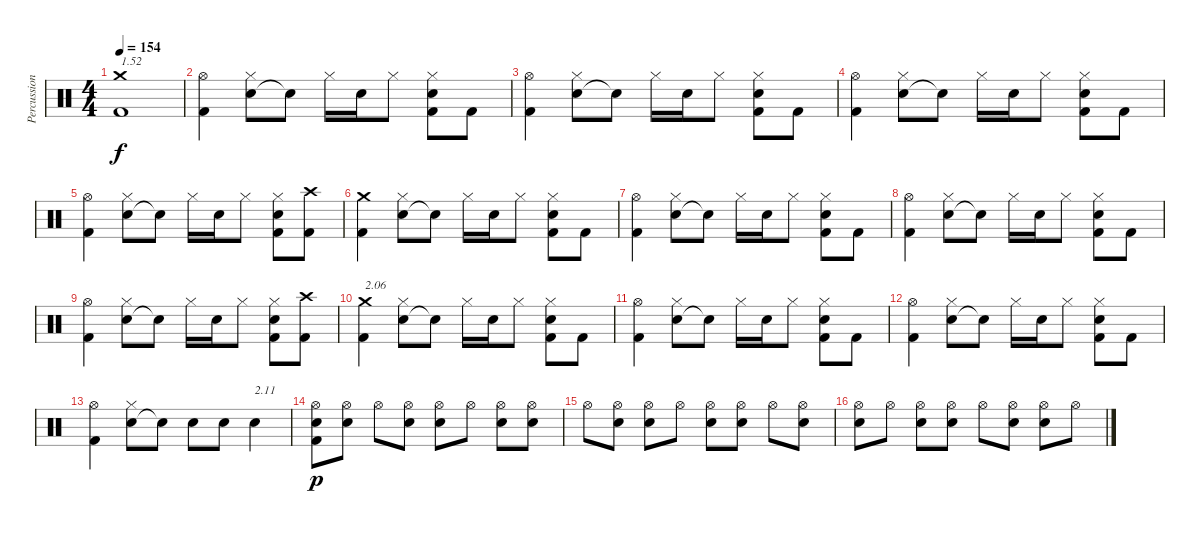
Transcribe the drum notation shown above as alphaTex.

\track ("Percussions" "Percussion") {instrument percussion}
\staff {score}
\articulation defaults
\ts (4 4)
\tempo 154
\clef neutral
\ks c
("Kick (hit) 2" "Crash medium (hit)").1{txt "1.52" dy f} |
("Kick (hit) 2" "Hi-Hat (open)").4 ("Electric Snare (hit)" "Hi-Hat (closed)").8 "Snare (hit)"{t}.8 "Hi-Hat (closed)".16 "Electric Snare (hit)".16 "Hi-Hat (closed)".8 ("Kick (hit) 2" "Electric Snare (hit)" "Hi-Hat (closed)").8 "Kick (hit) 2".8 |
("Kick (hit) 2" "Hi-Hat (open)").4 ("Electric Snare (hit)" "Hi-Hat (closed)").8 "Snare (hit)"{t}.8 "Hi-Hat (closed)".16 "Electric Snare (hit)".16 "Hi-Hat (closed)".8 ("Kick (hit) 2" "Electric Snare (hit)" "Hi-Hat (closed)").8 "Kick (hit) 2".8 |
("Kick (hit) 2" "Hi-Hat (open)").4 ("Electric Snare (hit)" "Hi-Hat (closed)").8 "Snare (hit)"{t}.8 "Hi-Hat (closed)".16 "Electric Snare (hit)".16 "Hi-Hat (closed)".8 ("Kick (hit) 2" "Electric Snare (hit)" "Hi-Hat (closed)").8 "Kick (hit) 2".8 |
("Kick (hit) 2" "Hi-Hat (open)").4 ("Electric Snare (hit)" "Hi-Hat (closed)").8 "Snare (hit)"{t}.8 "Hi-Hat (closed)".16 "Electric Snare (hit)".16 "Hi-Hat (closed)".8 ("Kick (hit) 2" "Electric Snare (hit)" "Hi-Hat (closed)").8 ("Kick (hit) 2" "Crash high (hit)").8 |
("Kick (hit) 2" "Crash medium (hit)").4 ("Electric Snare (hit)" "Hi-Hat (closed)").8 "Snare (hit)"{t}.8 "Hi-Hat (closed)".16 "Electric Snare (hit)".16 "Hi-Hat (closed)".8 ("Kick (hit) 2" "Electric Snare (hit)" "Hi-Hat (closed)").8 "Kick (hit) 2".8 |
("Kick (hit) 2" "Hi-Hat (open)").4 ("Electric Snare (hit)" "Hi-Hat (closed)").8 "Snare (hit)"{t}.8 "Hi-Hat (closed)".16 "Electric Snare (hit)".16 "Hi-Hat (closed)".8 ("Kick (hit) 2" "Electric Snare (hit)" "Hi-Hat (closed)").8 "Kick (hit) 2".8 |
("Kick (hit) 2" "Hi-Hat (open)").4 ("Electric Snare (hit)" "Hi-Hat (closed)").8 "Snare (hit)"{t}.8 "Hi-Hat (closed)".16 "Electric Snare (hit)".16 "Hi-Hat (closed)".8 ("Kick (hit) 2" "Electric Snare (hit)" "Hi-Hat (closed)").8 "Kick (hit) 2".8 |
("Kick (hit) 2" "Hi-Hat (open)").4 ("Electric Snare (hit)" "Hi-Hat (closed)").8 "Snare (hit)"{t}.8 "Hi-Hat (closed)".16 "Electric Snare (hit)".16 "Hi-Hat (closed)".8 ("Kick (hit) 2" "Electric Snare (hit)" "Hi-Hat (closed)").8 ("Kick (hit) 2" "Crash high (hit)").8 |
("Kick (hit) 2" "Crash medium (hit)").4{txt "2.06"} ("Electric Snare (hit)" "Hi-Hat (closed)").8 "Snare (hit)"{t}.8 "Hi-Hat (closed)".16 "Electric Snare (hit)".16 "Hi-Hat (closed)".8 ("Kick (hit) 2" "Electric Snare (hit)" "Hi-Hat (closed)").8 "Kick (hit) 2".8 |
("Kick (hit) 2" "Hi-Hat (open)").4 ("Electric Snare (hit)" "Hi-Hat (closed)").8 "Snare (hit)"{t}.8 "Hi-Hat (closed)".16 "Electric Snare (hit)".16 "Hi-Hat (closed)".8 ("Kick (hit) 2" "Electric Snare (hit)" "Hi-Hat (closed)").8 "Kick (hit) 2".8 |
("Kick (hit) 2" "Hi-Hat (open)").4 ("Electric Snare (hit)" "Hi-Hat (closed)").8 "Snare (hit)"{t}.8 "Hi-Hat (closed)".16 "Electric Snare (hit)".16 "Hi-Hat (closed)".8 ("Kick (hit) 2" "Electric Snare (hit)" "Hi-Hat (closed)").8 "Kick (hit) 2".8 |
("Kick (hit) 2" "Hi-Hat (open)").4 ("Electric Snare (hit)" "Hi-Hat (closed)").8 "Snare (hit)"{t}.8 "Electric Snare (hit)".8 "Electric Snare (hit)".8 "Electric Snare (hit)".4{txt "2.11"} |
("Kick (hit) 2" "Electric Snare (hit)" "Hi-Hat (open)").8{dy p} ("Electric Snare (hit)" "Hi-Hat (open)").8 "Hi-Hat (open)".8 ("Electric Snare (hit)" "Hi-Hat (open)").8 ("Electric Snare (hit)" "Hi-Hat (open)").8 "Hi-Hat (open)".8 ("Electric Snare (hit)" "Hi-Hat (open)").8 ("Electric Snare (hit)" "Hi-Hat (open)").8 |
"Hi-Hat (open)".8 ("Electric Snare (hit)" "Hi-Hat (open)").8 ("Electric Snare (hit)" "Hi-Hat (open)").8 "Hi-Hat (open)".8 ("Electric Snare (hit)" "Hi-Hat (open)").8 ("Electric Snare (hit)" "Hi-Hat (open)").8 "Hi-Hat (open)".8 ("Electric Snare (hit)" "Hi-Hat (open)").8 |
("Electric Snare (hit)" "Hi-Hat (open)").8 "Hi-Hat (open)".8 ("Electric Snare (hit)" "Hi-Hat (open)").8 ("Electric Snare (hit)" "Hi-Hat (open)").8 "Hi-Hat (open)".8 ("Electric Snare (hit)" "Hi-Hat (open)").8 ("Electric Snare (hit)" "Hi-Hat (open)").8 "Hi-Hat (open)".8
